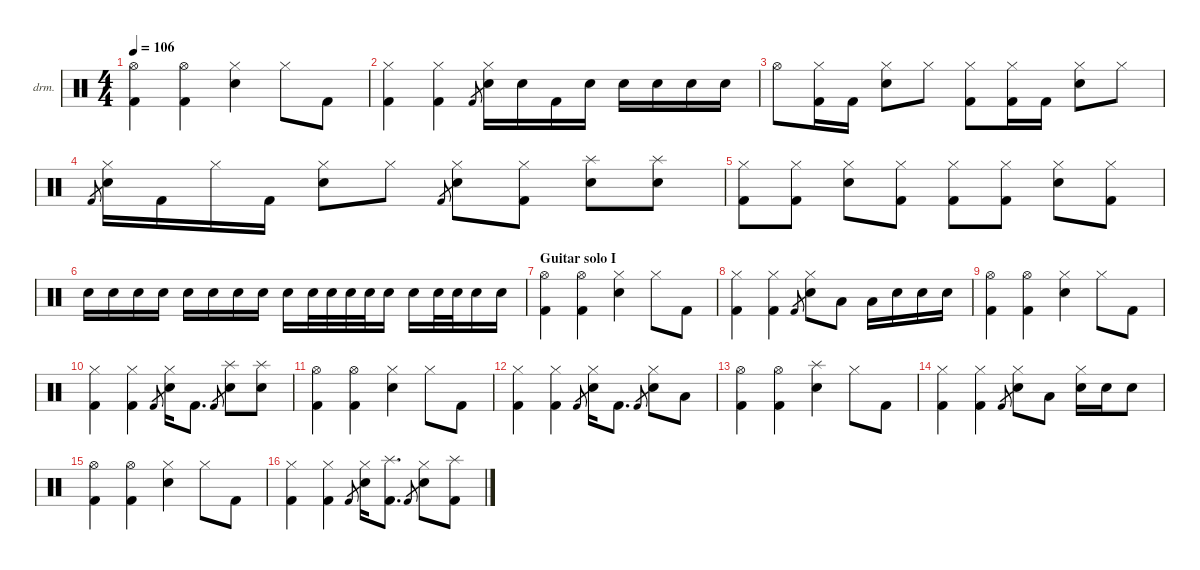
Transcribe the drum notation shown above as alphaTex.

\defaultSystemsLayout 4
\hideDynamics
\bracketExtendMode nobrackets
\firstSystemTrackNameOrientation horizontal
\otherSystemsTrackNameOrientation horizontal
\track ("Lars Ulrich" "drm.") {instrument percussion}
\staff {score}
\articulation defaults
\ts (4 4)
\tempo 106
\clef neutral
\ks c
("Hi-Hat (open)" "Kick (hit) 2").4{dy f} ("Hi-Hat (open)" "Kick (hit) 2").4 ("Hi-Hat (closed)" "Snare (hit) 2").4 "Hi-Hat (closed)".8 "Kick (hit) 2".8 |
("Hi-Hat (closed)" "Kick (hit) 2").4 ("Hi-Hat (closed)" "Kick (hit) 2").4 "Kick (hit) 2".8{gr dy mf} ("Hi-Hat (closed)" "Snare (hit) 2").16{dy f} "Snare (hit) 2".16 "Kick (hit) 2".16 "Snare (hit) 2".16 "Snare (hit) 2".16 "Snare (hit) 2".16 "Snare (hit) 2".16 "Snare (hit) 2".16 |
"Hi-Hat (open)".8 ("Hi-Hat (closed)" "Kick (hit) 2").16 "Kick (hit) 2".16 ("Hi-Hat (closed)" "Snare (hit) 2").8 "Hi-Hat (closed)".8 ("Hi-Hat (closed)" "Kick (hit) 2").8 ("Hi-Hat (closed)" "Kick (hit) 2").16 "Kick (hit) 2".16 ("Hi-Hat (closed)" "Snare (hit) 2").8 "Hi-Hat (closed)".8 |
"Kick (hit) 2".8{gr dy mf} ("Hi-Hat (closed)" "Snare (hit) 2").16{dy f} "Kick (hit) 2".16 "Hi-Hat (closed)".16 "Kick (hit) 2".16 ("Hi-Hat (closed)" "Snare (hit) 2").8 "Hi-Hat (closed)".8 "Kick (hit) 2".8{gr dy mf} ("Hi-Hat (closed)" "Snare (hit) 2").8{dy f} ("Hi-Hat (closed)" "Kick (hit) 2").8 ("Splash (hit)" "Snare (hit) 2").8{dy fff} ("Splash (hit)" "Snare (hit) 2").8 |
("Hi-Hat (closed)" "Kick (hit) 2").8{dy f} ("Hi-Hat (closed)" "Kick (hit) 2").8 ("Hi-Hat (closed)" "Snare (hit) 2").8 ("Hi-Hat (closed)" "Kick (hit) 2").8 ("Hi-Hat (closed)" "Kick (hit) 2").8 ("Hi-Hat (closed)" "Kick (hit) 2").8 ("Hi-Hat (closed)" "Snare (hit) 2").8 ("Hi-Hat (closed)" "Kick (hit) 2").8 |
"Snare (hit) 2".16{dy pp} "Snare (hit) 2".16 "Snare (hit) 2".16{dy p} "Snare (hit) 2".16 "Snare (hit) 2".16{dy mp} "Snare (hit) 2".16 "Snare (hit) 2".16{dy mf} "Snare (hit) 2".16 "Snare (hit) 2".16{dy f} "Snare (hit) 2".32 "Snare (hit) 2".32 "Snare (hit) 2".32 "Snare (hit) 2".32 "Snare (hit) 2".16 "Snare (hit) 2".16 "Snare (hit) 2".32 "Snare (hit) 2".32 "Snare (hit) 2".16 "Snare (hit) 2".16 |
\section ("" "Guitar solo I")
("Hi-Hat (open)" "Kick (hit) 2").4 ("Hi-Hat (open)" "Kick (hit) 2").4 ("Hi-Hat (closed)" "Snare (hit) 2").4 "Hi-Hat (closed)".8 "Kick (hit) 2".8 |
("Hi-Hat (closed)" "Kick (hit) 2").4 ("Hi-Hat (closed)" "Kick (hit) 2").4 "Kick (hit) 2".8{gr dy mf} ("Hi-Hat (closed)" "Snare (hit) 2").8{dy f} "Low Tom (hit)".8 "Low Tom (hit)".16 "Snare (hit) 2".16 "Snare (hit) 2".16 "Snare (hit) 2".16 |
("Hi-Hat (open)" "Kick (hit) 2").4 ("Hi-Hat (open)" "Kick (hit) 2").4 ("Hi-Hat (closed)" "Snare (hit) 2").4 "Hi-Hat (closed)".8 "Kick (hit) 2".8 |
("Hi-Hat (closed)" "Kick (hit) 2").4 ("Hi-Hat (closed)" "Kick (hit) 2").4 "Kick (hit) 2".8{gr dy mf} ("Hi-Hat (closed)" "Snare (hit) 2").16{dy f} "Kick (hit) 2".8{d} "Kick (hit) 2".8{gr dy mf} ("Splash (hit)" "Snare (hit) 2").8{dy fff} ("Splash (hit)" "Snare (hit) 2").8 |
("Hi-Hat (open)" "Kick (hit) 2").4{dy f} ("Hi-Hat (open)" "Kick (hit) 2").4 ("Hi-Hat (closed)" "Snare (hit) 2").4 "Hi-Hat (closed)".8 "Kick (hit) 2".8 |
("Hi-Hat (closed)" "Kick (hit) 2").4 ("Hi-Hat (closed)" "Kick (hit) 2").4 "Kick (hit) 2".8{gr dy mf} ("Hi-Hat (closed)" "Snare (hit) 2").16{dy f} "Kick (hit) 2".8{d} "Kick (hit) 2".8{gr dy mf} ("Hi-Hat (closed)" "Snare (hit) 2").8{dy f} "Low Tom (hit)".8 |
("Hi-Hat (open)" "Kick (hit) 2").4 ("Hi-Hat (open)" "Kick (hit) 2").4 ("Splash (hit)" "Snare (hit) 2").4{dy fff} "Hi-Hat (closed)".8{dy f} "Kick (hit) 2".8 |
("Hi-Hat (closed)" "Kick (hit) 2").4 ("Hi-Hat (closed)" "Kick (hit) 2").4 "Kick (hit) 2".8{gr dy mf} ("Hi-Hat (closed)" "Snare (hit) 2").8{dy f} "Low Tom (hit)".8 ("Hi-Hat (closed)" "Snare (hit) 2").16 "Snare (hit) 2".16 "Snare (hit) 2".8 |
("Hi-Hat (open)" "Kick (hit) 2").4 ("Hi-Hat (open)" "Kick (hit) 2").4 ("Hi-Hat (closed)" "Snare (hit) 2").4 "Hi-Hat (closed)".8 "Kick (hit) 2".8 |
("Hi-Hat (closed)" "Kick (hit) 2").4 ("Hi-Hat (closed)" "Kick (hit) 2").4 "Kick (hit) 2".8{gr dy mf} ("Hi-Hat (closed)" "Snare (hit) 2").16{dy f} ("Splash (hit)" "Kick (hit) 2").8{d dy fff} "Kick (hit) 2".8{gr dy mf} ("Hi-Hat (closed)" "Snare (hit) 2").8{dy f} ("Splash (hit)" "Kick (hit) 2").8{dy fff}
